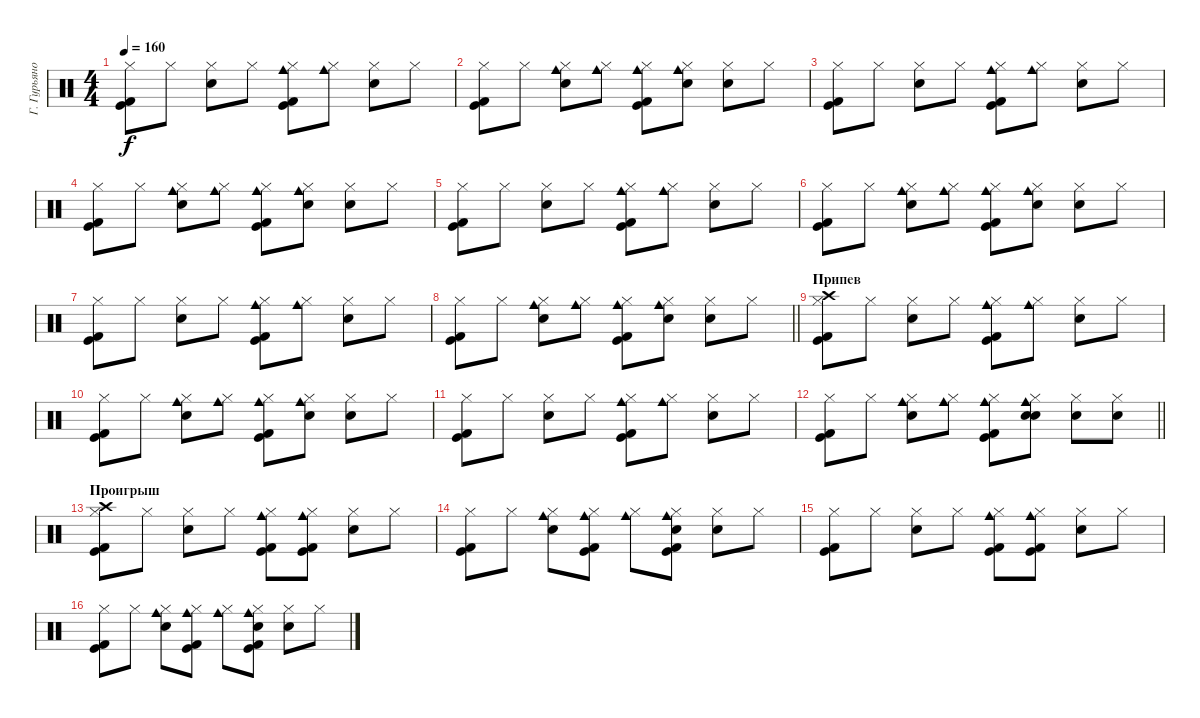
\track ("Г. Гурьянов" "Г. Гурьяно") {instrument percussion}
\staff
\articulation defaults
\ts (4 4)
\tempo 160
\clef neutral
\ks c
("Hi-Hat (closed)" "Kick (hit)" "Kick (hit) 2").8{dy f} "Hi-Hat (closed)".8 ("Hi-Hat (closed)" "Snare (hit) 2").8 "Hi-Hat (closed)".8 ("Hi-Hat (closed)" "Cowbell medium (hit)" "Kick (hit)" "Kick (hit) 2").8 ("Hi-Hat (closed)" "Cowbell medium (hit)").8 ("Hi-Hat (closed)" "Snare (hit) 2").8 "Hi-Hat (closed)".8 |
("Hi-Hat (closed)" "Kick (hit)" "Kick (hit) 2").8 "Hi-Hat (closed)".8 ("Hi-Hat (closed)" "Cowbell medium (hit)" "Snare (hit) 2").8 ("Hi-Hat (closed)" "Cowbell medium (hit)").8 ("Hi-Hat (closed)" "Cowbell medium (hit)" "Kick (hit)" "Kick (hit) 2").8 ("Hi-Hat (closed)" "Cowbell medium (hit)" "Hand Clap (hit)").8 ("Hi-Hat (closed)" "Snare (hit) 2").8 "Hi-Hat (closed)".8 |
("Hi-Hat (closed)" "Kick (hit)" "Kick (hit) 2").8 "Hi-Hat (closed)".8 ("Hi-Hat (closed)" "Snare (hit) 2").8 "Hi-Hat (closed)".8 ("Hi-Hat (closed)" "Cowbell medium (hit)" "Kick (hit)" "Kick (hit) 2").8 ("Hi-Hat (closed)" "Cowbell medium (hit)").8 ("Hi-Hat (closed)" "Snare (hit) 2").8 "Hi-Hat (closed)".8 |
("Hi-Hat (closed)" "Kick (hit)" "Kick (hit) 2").8 "Hi-Hat (closed)".8 ("Hi-Hat (closed)" "Cowbell medium (hit)" "Snare (hit) 2").8 ("Hi-Hat (closed)" "Cowbell medium (hit)").8 ("Hi-Hat (closed)" "Cowbell medium (hit)" "Kick (hit)" "Kick (hit) 2").8 ("Hi-Hat (closed)" "Cowbell medium (hit)" "Hand Clap (hit)").8 ("Hi-Hat (closed)" "Snare (hit) 2").8 "Hi-Hat (closed)".8 |
("Hi-Hat (closed)" "Kick (hit)" "Kick (hit) 2").8 "Hi-Hat (closed)".8 ("Hi-Hat (closed)" "Snare (hit) 2").8 "Hi-Hat (closed)".8 ("Hi-Hat (closed)" "Cowbell medium (hit)" "Kick (hit)" "Kick (hit) 2").8 ("Hi-Hat (closed)" "Cowbell medium (hit)").8 ("Hi-Hat (closed)" "Snare (hit) 2").8 "Hi-Hat (closed)".8 |
("Hi-Hat (closed)" "Kick (hit)" "Kick (hit) 2").8 "Hi-Hat (closed)".8 ("Hi-Hat (closed)" "Cowbell medium (hit)" "Snare (hit) 2").8 ("Hi-Hat (closed)" "Cowbell medium (hit)").8 ("Hi-Hat (closed)" "Cowbell medium (hit)" "Kick (hit)" "Kick (hit) 2").8 ("Hi-Hat (closed)" "Cowbell medium (hit)" "Hand Clap (hit)").8 ("Hi-Hat (closed)" "Snare (hit) 2").8 "Hi-Hat (closed)".8 |
("Hi-Hat (closed)" "Kick (hit)" "Kick (hit) 2").8 "Hi-Hat (closed)".8 ("Hi-Hat (closed)" "Snare (hit) 2").8 "Hi-Hat (closed)".8 ("Hi-Hat (closed)" "Cowbell medium (hit)" "Kick (hit)" "Kick (hit) 2").8 ("Hi-Hat (closed)" "Cowbell medium (hit)").8 ("Hi-Hat (closed)" "Snare (hit) 2").8 "Hi-Hat (closed)".8 |
\barLineRight lightlight
("Hi-Hat (closed)" "Kick (hit)" "Kick (hit) 2").8 "Hi-Hat (closed)".8 ("Hi-Hat (closed)" "Cowbell medium (hit)" "Snare (hit) 2").8 ("Hi-Hat (closed)" "Cowbell medium (hit)").8 ("Hi-Hat (closed)" "Cowbell medium (hit)" "Kick (hit)" "Kick (hit) 2").8 ("Hi-Hat (closed)" "Cowbell medium (hit)" "Hand Clap (hit)").8 ("Hi-Hat (closed)" "Snare (hit) 2").8 "Hi-Hat (closed)".8 |
\section ("" "Припев")
("Hi-Hat (closed)" "Crash high (hit)" "Kick (hit)" "Kick (hit) 2").8 "Hi-Hat (closed)".8 ("Hi-Hat (closed)" "Snare (hit) 2").8 "Hi-Hat (closed)".8 ("Hi-Hat (closed)" "Cowbell medium (hit)" "Kick (hit)" "Kick (hit) 2").8 ("Hi-Hat (closed)" "Cowbell medium (hit)").8 ("Hi-Hat (closed)" "Snare (hit) 2").8 "Hi-Hat (closed)".8 |
("Hi-Hat (closed)" "Kick (hit)" "Kick (hit) 2").8 "Hi-Hat (closed)".8 ("Hi-Hat (closed)" "Cowbell medium (hit)" "Snare (hit) 2").8 ("Hi-Hat (closed)" "Cowbell medium (hit)").8 ("Hi-Hat (closed)" "Cowbell medium (hit)" "Kick (hit)" "Kick (hit) 2").8 ("Hi-Hat (closed)" "Cowbell medium (hit)" "Hand Clap (hit)").8 ("Hi-Hat (closed)" "Snare (hit) 2").8 "Hi-Hat (closed)".8 |
("Hi-Hat (closed)" "Kick (hit)" "Kick (hit) 2").8 "Hi-Hat (closed)".8 ("Hi-Hat (closed)" "Snare (hit) 2").8 "Hi-Hat (closed)".8 ("Hi-Hat (closed)" "Cowbell medium (hit)" "Kick (hit)" "Kick (hit) 2").8 ("Hi-Hat (closed)" "Cowbell medium (hit)").8 ("Hi-Hat (closed)" "Snare (hit) 2").8 "Hi-Hat (closed)".8 |
\barLineRight lightlight
("Hi-Hat (closed)" "Kick (hit)" "Kick (hit) 2").8 "Hi-Hat (closed)".8 ("Hi-Hat (closed)" "Cowbell medium (hit)" "Snare (hit) 2").8 ("Hi-Hat (closed)" "Cowbell medium (hit)").8 ("Hi-Hat (closed)" "Cowbell medium (hit)" "Kick (hit)" "Kick (hit) 2").8 ("Hi-Hat (closed)" "Cowbell medium (hit)" "Snare (hit) 2" "Hand Clap (hit)").8 ("Hi-Hat (closed)" "Snare (hit) 2").8 ("Hi-Hat (closed)" "Snare (hit) 2").8 |
\section ("" "Проигрыш")
("Hi-Hat (closed)" "Crash high (hit)" "Kick (hit)" "Kick (hit) 2").8 "Hi-Hat (closed)".8 ("Hi-Hat (closed)" "Snare (hit) 2").8 "Hi-Hat (closed)".8 ("Hi-Hat (closed)" "Cowbell medium (hit)" "Kick (hit)" "Kick (hit) 2").8 ("Hi-Hat (closed)" "Cowbell medium (hit)" "Kick (hit)" "Kick (hit) 2").8 ("Hi-Hat (closed)" "Snare (hit) 2").8 "Hi-Hat (closed)".8 |
("Hi-Hat (closed)" "Kick (hit)" "Kick (hit) 2").8 "Hi-Hat (closed)".8 ("Hi-Hat (closed)" "Cowbell medium (hit)" "Snare (hit) 2").8 ("Hi-Hat (closed)" "Cowbell medium (hit)" "Kick (hit)" "Kick (hit) 2").8 ("Hi-Hat (closed)" "Cowbell medium (hit)").8 ("Hi-Hat (closed)" "Cowbell medium (hit)" "Hand Clap (hit)" "Kick (hit)" "Kick (hit) 2").8 ("Hi-Hat (closed)" "Snare (hit) 2").8 "Hi-Hat (closed)".8 |
("Hi-Hat (closed)" "Kick (hit)" "Kick (hit) 2").8 "Hi-Hat (closed)".8 ("Hi-Hat (closed)" "Snare (hit) 2").8 "Hi-Hat (closed)".8 ("Hi-Hat (closed)" "Cowbell medium (hit)" "Kick (hit)" "Kick (hit) 2").8 ("Hi-Hat (closed)" "Cowbell medium (hit)" "Kick (hit)" "Kick (hit) 2").8 ("Hi-Hat (closed)" "Snare (hit) 2").8 "Hi-Hat (closed)".8 |
("Hi-Hat (closed)" "Kick (hit)" "Kick (hit) 2").8 "Hi-Hat (closed)".8 ("Hi-Hat (closed)" "Cowbell medium (hit)" "Snare (hit) 2").8 ("Hi-Hat (closed)" "Cowbell medium (hit)" "Kick (hit)" "Kick (hit) 2").8 ("Hi-Hat (closed)" "Cowbell medium (hit)").8 ("Hi-Hat (closed)" "Cowbell medium (hit)" "Hand Clap (hit)" "Kick (hit)" "Kick (hit) 2").8 ("Hi-Hat (closed)" "Snare (hit) 2").8 "Hi-Hat (closed)".8
